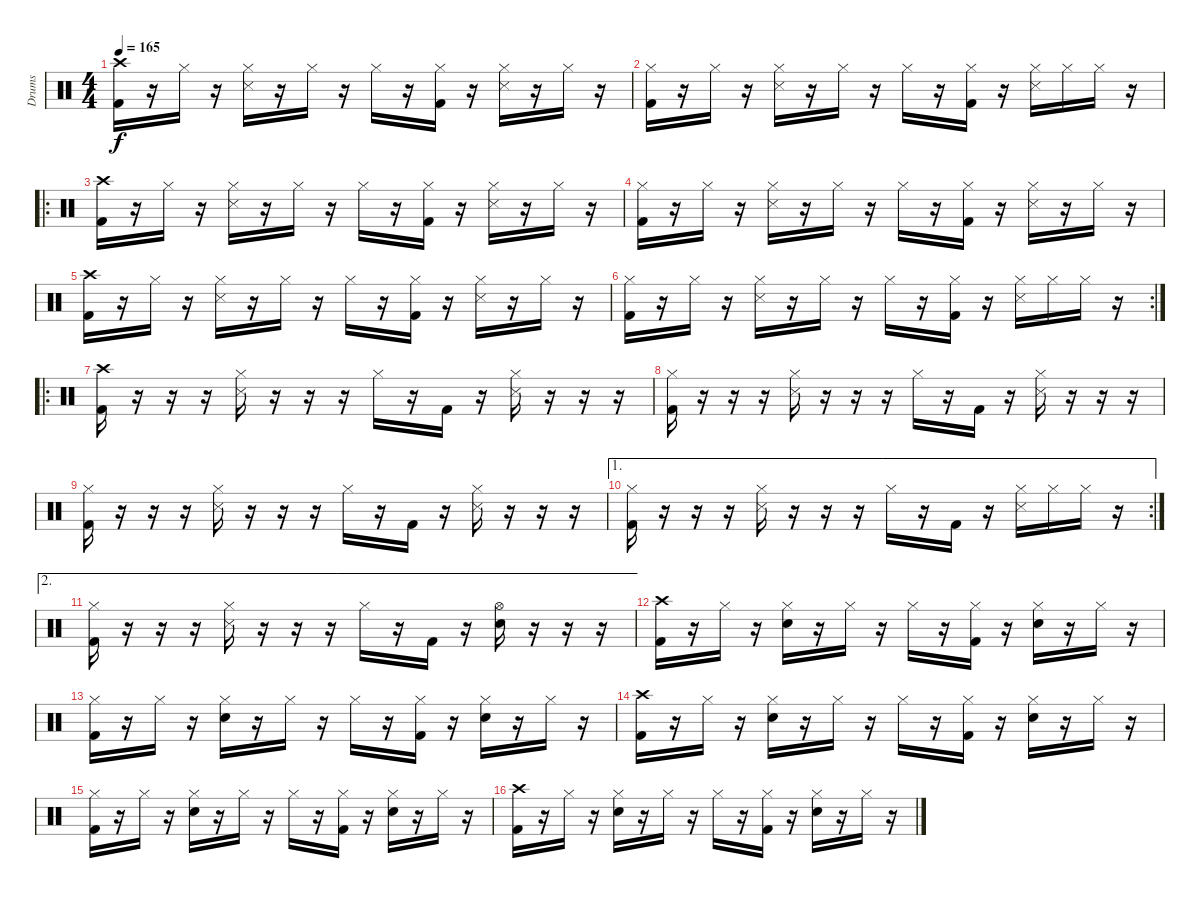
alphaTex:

\track ("Drums" "Drums") {instrument percussion}
\staff {score}
\articulation defaults
\ts (4 4)
\tempo 165
\clef neutral
\ks c
("Kick (hit) 2" "Crash high (hit)").16{dy f} r.16 "Hi-Hat (closed)".16 r.16 ("Hi-Hat (closed)" "Snare (side stick) 3").16 r.16 "Hi-Hat (closed)".16 r.16 "Hi-Hat (closed)".16 r.16 ("Hi-Hat (closed)" "Kick (hit) 2").16 r.16 ("Hi-Hat (closed)" "Snare (side stick) 3").16 r.16 "Hi-Hat (closed)".16 r.16 |
("Kick (hit) 2" "Hi-Hat (closed)").16 r.16 "Hi-Hat (closed)".16 r.16 ("Hi-Hat (closed)" "Snare (side stick) 3").16 r.16 "Hi-Hat (closed)".16 r.16 "Hi-Hat (closed)".16 r.16 ("Hi-Hat (closed)" "Kick (hit) 2").16 r.16 ("Hi-Hat (closed)" "Snare (side stick) 3").16 "Hi-Hat (closed)".16 "Hi-Hat (closed)".16 r.16 |
\ro
("Kick (hit) 2" "Crash high (hit)").16 r.16 "Hi-Hat (closed)".16 r.16 ("Hi-Hat (closed)" "Snare (side stick) 3").16 r.16 "Hi-Hat (closed)".16 r.16 "Hi-Hat (closed)".16 r.16 ("Hi-Hat (closed)" "Kick (hit) 2").16 r.16 ("Hi-Hat (closed)" "Snare (side stick) 3").16 r.16 "Hi-Hat (closed)".16 r.16 |
("Kick (hit) 2" "Hi-Hat (closed)").16 r.16 "Hi-Hat (closed)".16 r.16 ("Hi-Hat (closed)" "Snare (side stick) 3").16 r.16 "Hi-Hat (closed)".16 r.16 "Hi-Hat (closed)".16 r.16 ("Hi-Hat (closed)" "Kick (hit) 2").16 r.16 ("Hi-Hat (closed)" "Snare (side stick) 3").16 r.16 "Hi-Hat (closed)".16 r.16 |
("Kick (hit) 2" "Crash high (hit)").16 r.16 "Hi-Hat (closed)".16 r.16 ("Hi-Hat (closed)" "Snare (side stick) 3").16 r.16 "Hi-Hat (closed)".16 r.16 "Hi-Hat (closed)".16 r.16 ("Hi-Hat (closed)" "Kick (hit) 2").16 r.16 ("Hi-Hat (closed)" "Snare (side stick) 3").16 r.16 "Hi-Hat (closed)".16 r.16 |
\rc 2
("Kick (hit) 2" "Hi-Hat (closed)").16 r.16 "Hi-Hat (closed)".16 r.16 ("Hi-Hat (closed)" "Snare (side stick) 3").16 r.16 "Hi-Hat (closed)".16 r.16 "Hi-Hat (closed)".16 r.16 ("Hi-Hat (closed)" "Kick (hit) 2").16 r.16 ("Hi-Hat (closed)" "Snare (side stick) 3").16 "Hi-Hat (closed)".16 "Hi-Hat (closed)".16 r.16 |
\ro
("Kick (hit) 2" "Crash high (hit)").16 r.16 r.16 r.16 ("Hi-Hat (closed)" "Snare (side stick) 3").16 r.16 r.16 r.16 "Hi-Hat (closed)".16 r.16 "Kick (hit) 2".16 r.16 ("Hi-Hat (closed)" "Snare (side stick) 3").16 r.16 r.16 r.16 |
("Kick (hit) 2" "Hi-Hat (closed)").16 r.16 r.16 r.16 ("Hi-Hat (closed)" "Snare (side stick) 3").16 r.16 r.16 r.16 "Hi-Hat (closed)".16 r.16 "Kick (hit) 2".16 r.16 ("Hi-Hat (closed)" "Snare (side stick) 3").16 r.16 r.16 r.16 |
("Kick (hit) 2" "Hi-Hat (closed)").16 r.16 r.16 r.16 ("Hi-Hat (closed)" "Snare (side stick) 3").16 r.16 r.16 r.16 "Hi-Hat (closed)".16 r.16 "Kick (hit) 2".16 r.16 ("Hi-Hat (closed)" "Snare (side stick) 3").16 r.16 r.16 r.16 |
\ae 1
\rc 2
("Kick (hit) 2" "Hi-Hat (closed)").16 r.16 r.16 r.16 ("Hi-Hat (closed)" "Snare (side stick) 3").16 r.16 r.16 r.16 "Hi-Hat (closed)".16 r.16 "Kick (hit) 2".16 r.16 ("Hi-Hat (closed)" "Snare (side stick) 3").16 "Hi-Hat (closed)".16 "Hi-Hat (closed)".16 r.16 |
\ae 2
("Kick (hit) 2" "Hi-Hat (closed)").16 r.16 r.16 r.16 ("Hi-Hat (closed)" "Snare (side stick) 3").16 r.16 r.16 r.16 "Hi-Hat (closed)".16 r.16 "Kick (hit) 2".16 r.16 ("Hi-Hat (open)" "Snare (hit) 2").16 r.16 r.16 r.16 |
("Kick (hit) 2" "Crash high (hit)").16 r.16 "Hi-Hat (closed)".16 r.16 ("Hi-Hat (closed)" "Snare (hit) 2").16 r.16 "Hi-Hat (closed)".16 r.16 "Hi-Hat (closed)".16 r.16 ("Hi-Hat (closed)" "Kick (hit) 2").16 r.16 ("Hi-Hat (closed)" "Snare (hit) 2").16 r.16 "Hi-Hat (closed)".16 r.16 |
("Kick (hit) 2" "Hi-Hat (closed)").16 r.16 "Hi-Hat (closed)".16 r.16 ("Hi-Hat (closed)" "Snare (hit) 2").16 r.16 "Hi-Hat (closed)".16 r.16 "Hi-Hat (closed)".16 r.16 ("Hi-Hat (closed)" "Kick (hit) 2").16 r.16 ("Hi-Hat (closed)" "Snare (hit) 2").16 r.16 "Hi-Hat (closed)".16 r.16 |
("Kick (hit) 2" "Crash high (hit)").16 r.16 "Hi-Hat (closed)".16 r.16 ("Hi-Hat (closed)" "Snare (hit) 2").16 r.16 "Hi-Hat (closed)".16 r.16 "Hi-Hat (closed)".16 r.16 ("Hi-Hat (closed)" "Kick (hit) 2").16 r.16 ("Hi-Hat (closed)" "Snare (hit) 2").16 r.16 "Hi-Hat (closed)".16 r.16 |
("Kick (hit) 2" "Hi-Hat (closed)").16 r.16 "Hi-Hat (closed)".16 r.16 ("Hi-Hat (closed)" "Snare (hit) 2").16 r.16 "Hi-Hat (closed)".16 r.16 "Hi-Hat (closed)".16 r.16 ("Hi-Hat (closed)" "Kick (hit) 2").16 r.16 ("Hi-Hat (closed)" "Snare (hit) 2").16 r.16 "Hi-Hat (closed)".16 r.16 |
("Kick (hit) 2" "Crash high (hit)").16 r.16 "Hi-Hat (closed)".16 r.16 ("Hi-Hat (closed)" "Snare (hit) 2").16 r.16 "Hi-Hat (closed)".16 r.16 "Hi-Hat (closed)".16 r.16 ("Hi-Hat (closed)" "Kick (hit) 2").16 r.16 ("Hi-Hat (closed)" "Snare (hit) 2").16 r.16 "Hi-Hat (closed)".16 r.16
